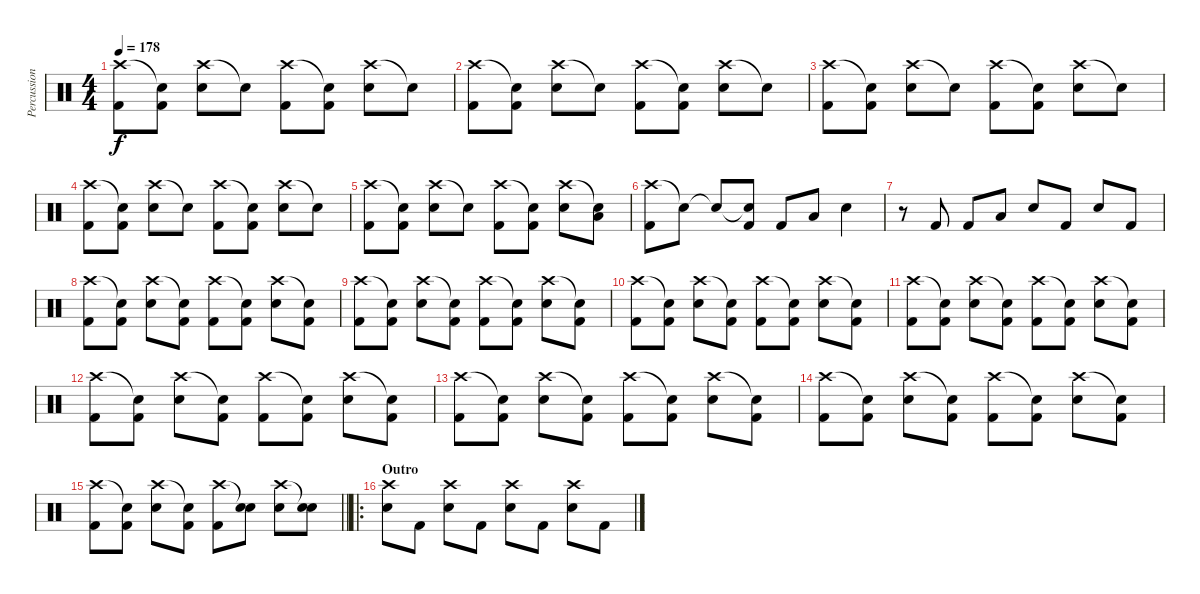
\track ("Percussion" "Percussion") {instrument percussion}
\staff {score}
\articulation defaults
\ts (4 4)
\tempo 178
\clef neutral
\ks c
("Crash high (hit)" "Kick (hit) 2").8{dy f} ("Snare (hit)"{t} "Kick (hit) 2").8 ("Crash high (hit)" "Snare (hit) 2").8 "Snare (hit)"{t}.8 ("Crash high (hit)" "Kick (hit) 2").8 ("Snare (hit)"{t} "Kick (hit) 2").8 ("Crash high (hit)" "Snare (hit) 2").8 "Snare (hit)"{t}.8 |
("Crash high (hit)" "Kick (hit) 2").8 ("Snare (hit)"{t} "Kick (hit) 2").8 ("Crash high (hit)" "Snare (hit) 2").8 "Snare (hit)"{t}.8 ("Crash high (hit)" "Kick (hit) 2").8 ("Snare (hit)"{t} "Kick (hit) 2").8 ("Crash high (hit)" "Snare (hit) 2").8 "Snare (hit)"{t}.8 |
("Crash high (hit)" "Kick (hit) 2").8 ("Snare (hit)"{t} "Kick (hit) 2").8 ("Crash high (hit)" "Snare (hit) 2").8 "Snare (hit)"{t}.8 ("Crash high (hit)" "Kick (hit) 2").8 ("Snare (hit)"{t} "Kick (hit) 2").8 ("Crash high (hit)" "Snare (hit) 2").8 "Snare (hit)"{t}.8 |
("Crash high (hit)" "Kick (hit) 2").8 ("Snare (hit)"{t} "Kick (hit) 2").8 ("Crash high (hit)" "Snare (hit) 2").8 "Snare (hit)"{t}.8 ("Crash high (hit)" "Kick (hit) 2").8 ("Snare (hit)"{t} "Kick (hit) 2").8 ("Crash high (hit)" "Snare (hit) 2").8 "Snare (hit)"{t}.8 |
("Crash high (hit)" "Kick (hit) 2").8 ("Snare (hit)"{t} "Kick (hit) 2").8 ("Crash high (hit)" "Snare (hit) 2").8 "Snare (hit)"{t}.8 ("Crash high (hit)" "Kick (hit) 2").8 ("Snare (hit)"{t} "Kick (hit) 2").8 ("Crash high (hit)" "Snare (hit) 2").8 ("Snare (hit)"{t} "Low Tom (hit)").8 |
("Crash high (hit)" "Kick (hit) 2").8 "Snare (hit)"{t}.8 "Snare (hit)"{t}.8 ("Snare (hit)"{t} "Kick (hit) 2").8 "Kick (hit) 2".8 "Low Tom (hit)".8 "Snare (hit) 2".4 |
r.8 "Kick (hit) 2".8 "Kick (hit) 2".8 "Low Tom (hit)".8 "Snare (hit) 2".8 "Kick (hit) 2".8 "Snare (hit) 2".8 "Kick (hit) 2".8 |
("Crash high (hit)" "Kick (hit) 2").8 ("Snare (hit)"{t} "Kick (hit) 2").8 ("Crash high (hit)" "Snare (hit) 2").8 ("Snare (hit)"{t} "Kick (hit) 2").8 ("Crash high (hit)" "Kick (hit) 2").8 ("Snare (hit)"{t} "Kick (hit) 2").8 ("Crash high (hit)" "Snare (hit) 2").8 ("Snare (hit)"{t} "Kick (hit) 2").8 |
("Crash high (hit)" "Kick (hit) 2").8 ("Snare (hit)"{t} "Kick (hit) 2").8 ("Crash high (hit)" "Snare (hit) 2").8 ("Snare (hit)"{t} "Kick (hit) 2").8 ("Crash high (hit)" "Kick (hit) 2").8 ("Snare (hit)"{t} "Kick (hit) 2").8 ("Crash high (hit)" "Snare (hit) 2").8 ("Snare (hit)"{t} "Kick (hit) 2").8 |
("Crash high (hit)" "Kick (hit) 2").8 ("Snare (hit)"{t} "Kick (hit) 2").8 ("Crash high (hit)" "Snare (hit) 2").8 ("Snare (hit)"{t} "Kick (hit) 2").8 ("Crash high (hit)" "Kick (hit) 2").8 ("Snare (hit)"{t} "Kick (hit) 2").8 ("Crash high (hit)" "Snare (hit) 2").8 ("Snare (hit)"{t} "Kick (hit) 2").8 |
("Crash high (hit)" "Kick (hit) 2").8 ("Snare (hit)"{t} "Kick (hit) 2").8 ("Crash high (hit)" "Snare (hit) 2").8 ("Snare (hit)"{t} "Kick (hit) 2").8 ("Crash high (hit)" "Kick (hit) 2").8 ("Snare (hit)"{t} "Kick (hit) 2").8 ("Crash high (hit)" "Snare (hit) 2").8 ("Snare (hit)"{t} "Kick (hit) 2").8 |
("Crash high (hit)" "Kick (hit) 2").8 ("Snare (hit)"{t} "Kick (hit) 2").8 ("Crash high (hit)" "Snare (hit) 2").8 ("Snare (hit)"{t} "Kick (hit) 2").8 ("Crash high (hit)" "Kick (hit) 2").8 ("Snare (hit)"{t} "Kick (hit) 2").8 ("Crash high (hit)" "Snare (hit) 2").8 ("Snare (hit)"{t} "Kick (hit) 2").8 |
("Crash high (hit)" "Kick (hit) 2").8 ("Snare (hit)"{t} "Kick (hit) 2").8 ("Crash high (hit)" "Snare (hit) 2").8 ("Snare (hit)"{t} "Kick (hit) 2").8 ("Crash high (hit)" "Kick (hit) 2").8 ("Snare (hit)"{t} "Kick (hit) 2").8 ("Crash high (hit)" "Snare (hit) 2").8 ("Snare (hit)"{t} "Kick (hit) 2").8 |
("Crash high (hit)" "Kick (hit) 2").8 ("Snare (hit)"{t} "Kick (hit) 2").8 ("Crash high (hit)" "Snare (hit) 2").8 ("Snare (hit)"{t} "Kick (hit) 2").8 ("Crash high (hit)" "Kick (hit) 2").8 ("Snare (hit)"{t} "Kick (hit) 2").8 ("Crash high (hit)" "Snare (hit) 2").8 ("Snare (hit)"{t} "Kick (hit) 2").8 |
\barLineRight lightlight
("Crash high (hit)" "Kick (hit) 2").8 ("Snare (hit)"{t} "Kick (hit) 2").8 ("Crash high (hit)" "Snare (hit) 2").8 ("Snare (hit)"{t} "Kick (hit) 2").8 ("Crash high (hit)" "Kick (hit) 2").8 ("Snare (hit)"{t} "Snare (hit) 2").8 ("Crash high (hit)" "Snare (hit) 2").8 ("Snare (hit)"{t} "Snare (hit) 2").8 |
\ro
\section ("" "Outro")
("Crash high (hit)" "Snare (hit) 2").8 "Kick (hit) 2".8 ("Crash high (hit)" "Snare (hit) 2").8 "Kick (hit) 2".8 ("Crash high (hit)" "Snare (hit) 2").8 "Kick (hit) 2".8 ("Crash high (hit)" "Snare (hit) 2").8 "Kick (hit) 2".8
